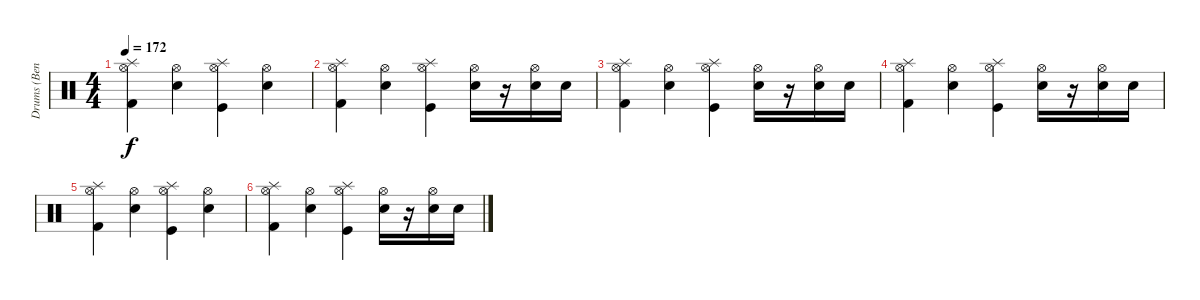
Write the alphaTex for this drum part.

\track ("Drums (Ben)" "Drums (Ben") {instrument percussion}
\staff {score}
\articulation defaults
\ts (4 4)
\tempo 172
\clef neutral
\ks c
("Kick (hit) 2" "Hi-Hat (open)" "Splash (hit)").4{dy f} ("Snare (hit) 2" "Hi-Hat (open)").4 ("Kick (hit)" "Hi-Hat (open)" "Splash (hit)").4 ("Snare (hit) 2" "Hi-Hat (open)").4 |
("Kick (hit) 2" "Hi-Hat (open)" "Splash (hit)").4 ("Snare (hit) 2" "Hi-Hat (open)").4 ("Kick (hit)" "Hi-Hat (open)" "Splash (hit)").4 ("Snare (hit) 2" "Hi-Hat (open)").16 r.16 ("Snare (hit) 2" "Hi-Hat (open)").16 "Snare (hit) 2".16 |
("Kick (hit) 2" "Hi-Hat (open)" "Splash (hit)").4 ("Snare (hit) 2" "Hi-Hat (open)").4 ("Kick (hit)" "Hi-Hat (open)" "Splash (hit)").4 ("Snare (hit) 2" "Hi-Hat (open)").16 r.16 ("Snare (hit) 2" "Hi-Hat (open)").16 "Snare (hit) 2".16 |
("Kick (hit) 2" "Hi-Hat (open)" "Splash (hit)").4 ("Snare (hit) 2" "Hi-Hat (open)").4 ("Kick (hit)" "Hi-Hat (open)" "Splash (hit)").4 ("Snare (hit) 2" "Hi-Hat (open)").16 r.16 ("Snare (hit) 2" "Hi-Hat (open)").16 "Snare (hit) 2".16 |
("Kick (hit) 2" "Hi-Hat (open)" "Splash (hit)").4 ("Snare (hit) 2" "Hi-Hat (open)").4 ("Kick (hit)" "Hi-Hat (open)" "Splash (hit)").4 ("Snare (hit) 2" "Hi-Hat (open)").4 |
("Kick (hit) 2" "Hi-Hat (open)" "Splash (hit)").4 ("Snare (hit) 2" "Hi-Hat (open)").4 ("Kick (hit)" "Hi-Hat (open)" "Splash (hit)").4 ("Snare (hit) 2" "Hi-Hat (open)").16 r.16 ("Snare (hit) 2" "Hi-Hat (open)").16 "Snare (hit) 2".16
